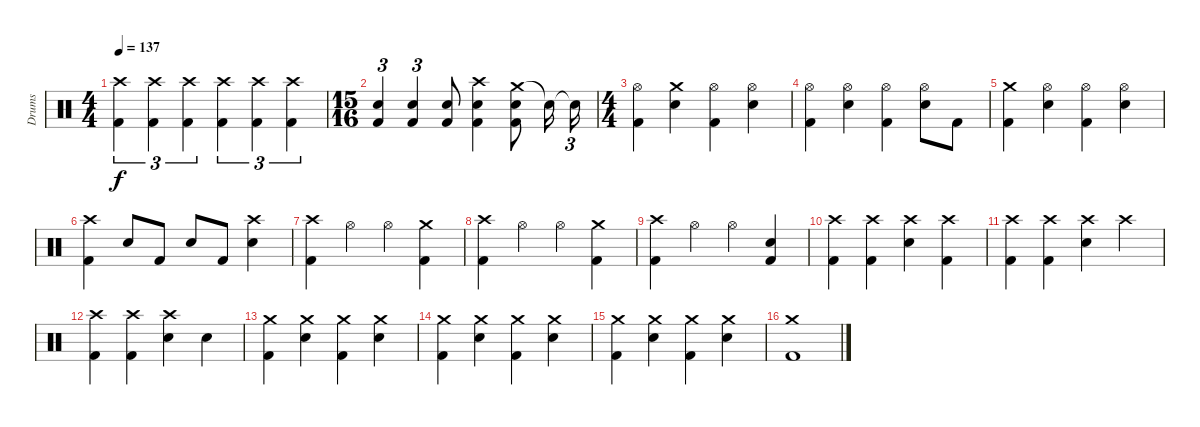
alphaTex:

\track ("Drums" "Drums") {instrument percussion}
\staff {score}
\articulation defaults
\ts (4 4)
\tempo 137
\clef neutral
\ks c
("Crash high (hit)" "Kick (hit) 2").4{tu (3 2) dy f} ("Crash high (hit)" "Kick (hit) 2").4{tu (3 2)} ("Crash high (hit)" "Kick (hit) 2").4{tu (3 2)} ("Crash high (hit)" "Kick (hit) 2").4{tu (3 2)} ("Crash high (hit)" "Kick (hit) 2").4{tu (3 2)} ("Crash high (hit)" "Kick (hit) 2").4{tu (3 2)} |
\ts (15 16)
("Snare (hit) 2" "Kick (hit) 2").4{tu (3 2)} ("Snare (hit) 2" "Kick (hit) 2").4{tu (3 2)} ("Snare (hit) 2" "Kick (hit) 2").8 ("Crash high (hit)" "Snare (hit) 2" "Kick (hit) 2").4 ("Crash medium (hit)" "Snare (hit) 2" "Kick (hit) 2").8 "Snare (hit)"{t}.16 "Snare (hit)"{t}.16{tu (3 2)} |
\ts (4 4)
("Hi-Hat (open)" "Kick (hit) 2").4 ("Crash medium (hit)" "Snare (hit) 2").4 ("Hi-Hat (open)" "Kick (hit) 2").4 ("Hi-Hat (open)" "Snare (hit) 2").4 |
("Hi-Hat (open)" "Kick (hit) 2").4 ("Hi-Hat (open)" "Snare (hit) 2").4 ("Hi-Hat (open)" "Kick (hit) 2").4 ("Hi-Hat (open)" "Snare (hit) 2").8 "Kick (hit) 2".8 |
("Crash medium (hit)" "Kick (hit) 2").4 ("Hi-Hat (open)" "Snare (hit) 2").4 ("Hi-Hat (open)" "Kick (hit) 2").4 ("Hi-Hat (open)" "Snare (hit) 2").4 |
("Crash high (hit)" "Kick (hit) 2").4 "Snare (hit) 2".8 "Kick (hit) 2".8 "Snare (hit) 2".8 "Kick (hit) 2".8 ("Crash high (hit)" "Snare (hit) 2").4 |
("Crash high (hit)" "Kick (hit) 2").4 "Hi-Hat (open)".4 "Hi-Hat (open)".4 ("Crash medium (hit)" "Kick (hit) 2").4 |
("Crash high (hit)" "Kick (hit) 2").4 "Hi-Hat (open)".4 "Hi-Hat (open)".4 ("Crash medium (hit)" "Kick (hit) 2").4 |
("Crash high (hit)" "Kick (hit) 2").4 "Hi-Hat (open)".4 "Hi-Hat (open)".4 ("Snare (hit) 2" "Kick (hit) 2").4 |
("Crash high (hit)" "Kick (hit) 2").4 ("Crash high (hit)" "Kick (hit) 2").4 ("Crash high (hit)" "Snare (hit) 2").4 ("Crash high (hit)" "Kick (hit) 2").4 |
("Crash high (hit)" "Kick (hit) 2").4 ("Crash high (hit)" "Kick (hit) 2").4 ("Crash high (hit)" "Snare (hit) 2").4 "Crash high (hit)".4 |
("Crash high (hit)" "Kick (hit) 2").4 ("Crash high (hit)" "Kick (hit) 2").4 ("Crash high (hit)" "Snare (hit) 2").4 "Snare (hit) 2".4 |
("Crash medium (hit)" "Kick (hit) 2").4 ("Crash medium (hit)" "Snare (hit) 2").4 ("Crash medium (hit)" "Kick (hit) 2").4 ("Crash medium (hit)" "Snare (hit) 2").4 |
("Crash medium (hit)" "Kick (hit) 2").4 ("Crash medium (hit)" "Snare (hit) 2").4 ("Crash medium (hit)" "Kick (hit) 2").4 ("Crash medium (hit)" "Snare (hit) 2").4 |
("Crash medium (hit)" "Kick (hit) 2").4 ("Crash medium (hit)" "Snare (hit) 2").4 ("Crash medium (hit)" "Kick (hit) 2").4 ("Crash medium (hit)" "Snare (hit) 2").4 |
("Crash medium (hit)" "Kick (hit) 2").1
